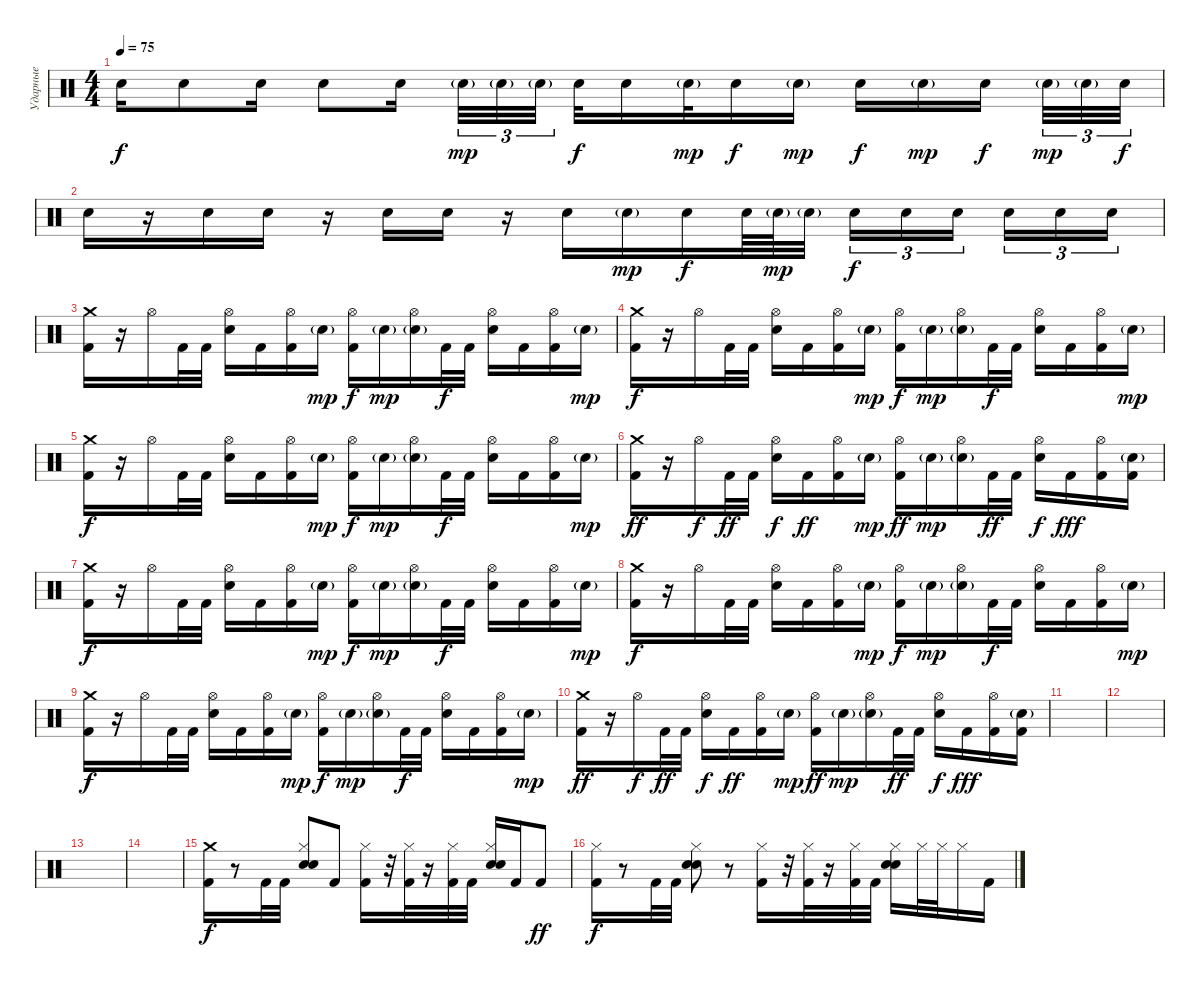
\track ("Ударные" "Ударные") {instrument percussion}
\staff {score}
\articulation defaults
\ts (4 4)
\tempo 75
\clef neutral
\ks c "Snare (hit) 2".16{dy f} "Snare (hit) 2".8 "Snare (hit) 2".16 "Snare (hit) 2".8 "Snare (hit) 2".16{beam splitsecondary} "Snare (hit) 2"{g}.32{tu (3 2) dy mp} "Snare (hit) 2"{g}.32{tu (3 2)} "Snare (hit) 2"{g}.32{tu (3 2)} "Snare (hit) 2".32{dy f} "Snare (hit) 2".16 "Snare (hit) 2"{g}.32{dy mp} "Snare (hit) 2".16{dy f} "Snare (hit) 2"{g}.16{dy mp} "Snare (hit) 2".16{dy f} "Snare (hit) 2"{g}.16{dy mp} "Snare (hit) 2".16{dy f beam splitsecondary} "Snare (hit) 2"{g}.32{tu (3 2) dy mp} "Snare (hit) 2"{g}.32{tu (3 2)} "Snare (hit) 2".32{tu (3 2) dy f}
|
"Snare (hit) 2".16 r.16 "Snare (hit) 2".16 "Snare (hit) 2".16 r.16 "Snare (hit) 2".16 "Snare (hit) 2".16 r.16 "Snare (hit) 2".16 "Snare (hit) 2"{g}.16{dy mp} "Snare (hit) 2".16{dy f} "Snare (hit) 2".64 "Snare (hit) 2"{g}.64{dy mp} "Snare (hit) 2"{g}.32 "Snare (hit) 2".16{tu (3 2) dy f} "Snare (hit) 2".16{tu (3 2)} "Snare (hit) 2".16{tu (3 2) beam splitsecondary} "Snare (hit) 2".16{tu (3 2)} "Snare (hit) 2".16{tu (3 2)} "Snare (hit) 2".16{tu (3 2)} |
("Crash medium (hit)" "Kick (hit) 2").16 r.16 "Hi-Hat (open)".16 "Kick (hit) 2".32 "Kick (hit) 2".32 ("Hi-Hat (open)" "Electric Snare (hit)").16 "Kick (hit) 2".16 ("Hi-Hat (open)" "Kick (hit) 2").16 "Electric Snare (hit)"{g}.16{dy mp} ("Hi-Hat (open)" "Kick (hit) 2").16{dy f} "Electric Snare (hit)"{g}.16{dy mp} ("Hi-Hat (open)" "Electric Snare (hit)"{g}).16 "Kick (hit) 2".32{dy f} "Kick (hit) 2".32 ("Hi-Hat (open)" "Electric Snare (hit)").16 "Kick (hit) 2".16 ("Hi-Hat (open)" "Kick (hit) 2").16 "Electric Snare (hit)"{g}.16{dy mp} |
("Crash medium (hit)" "Kick (hit) 2").16{dy f} r.16 "Hi-Hat (open)".16 "Kick (hit) 2".32 "Kick (hit) 2".32 ("Hi-Hat (open)" "Electric Snare (hit)").16 "Kick (hit) 2".16 ("Hi-Hat (open)" "Kick (hit) 2").16 "Electric Snare (hit)"{g}.16{dy mp} ("Hi-Hat (open)" "Kick (hit) 2").16{dy f} "Electric Snare (hit)"{g}.16{dy mp} ("Hi-Hat (open)" "Electric Snare (hit)"{g}).16 "Kick (hit) 2".32{dy f} "Kick (hit) 2".32 ("Hi-Hat (open)" "Electric Snare (hit)").16 "Kick (hit) 2".16 ("Hi-Hat (open)" "Kick (hit) 2").16 "Electric Snare (hit)"{g}.16{dy mp} |
("Crash medium (hit)" "Kick (hit) 2").16{dy f} r.16 "Hi-Hat (open)".16 "Kick (hit) 2".32 "Kick (hit) 2".32 ("Hi-Hat (open)" "Electric Snare (hit)").16 "Kick (hit) 2".16 ("Hi-Hat (open)" "Kick (hit) 2").16 "Electric Snare (hit)"{g}.16{dy mp} ("Hi-Hat (open)" "Kick (hit) 2").16{dy f} "Electric Snare (hit)"{g}.16{dy mp} ("Hi-Hat (open)" "Electric Snare (hit)"{g}).16 "Kick (hit) 2".32{dy f} "Kick (hit) 2".32 ("Hi-Hat (open)" "Electric Snare (hit)").16 "Kick (hit) 2".16 ("Hi-Hat (open)" "Kick (hit) 2").16 "Electric Snare (hit)"{g}.16{dy mp} |
("Crash medium (hit)" "Kick (hit) 2").16{dy ff} r.16 "Hi-Hat (open)".16{dy f} "Kick (hit) 2".32{dy ff} "Kick (hit) 2".32 ("Hi-Hat (open)" "Electric Snare (hit)").16{dy f} "Kick (hit) 2".16{dy ff} ("Hi-Hat (open)" "Kick (hit) 2").16 "Electric Snare (hit)"{g}.16{dy mp} ("Hi-Hat (open)" "Kick (hit) 2").16{dy ff} "Electric Snare (hit)"{g}.16{dy mp} ("Hi-Hat (open)" "Electric Snare (hit)"{g}).16 "Kick (hit) 2".32{dy ff} "Kick (hit) 2".32 ("Hi-Hat (open)" "Electric Snare (hit)").16{dy f} "Kick (hit) 2".16{dy fff} ("Hi-Hat (open)" "Kick (hit) 2").16 ("Electric Snare (hit)"{g} "Kick (hit) 2").16 |
("Crash medium (hit)" "Kick (hit) 2").16{dy f} r.16 "Hi-Hat (open)".16 "Kick (hit) 2".32 "Kick (hit) 2".32 ("Hi-Hat (open)" "Electric Snare (hit)").16 "Kick (hit) 2".16 ("Hi-Hat (open)" "Kick (hit) 2").16 "Electric Snare (hit)"{g}.16{dy mp} ("Hi-Hat (open)" "Kick (hit) 2").16{dy f} "Electric Snare (hit)"{g}.16{dy mp} ("Hi-Hat (open)" "Electric Snare (hit)"{g}).16 "Kick (hit) 2".32{dy f} "Kick (hit) 2".32 ("Hi-Hat (open)" "Electric Snare (hit)").16 "Kick (hit) 2".16 ("Hi-Hat (open)" "Kick (hit) 2").16 "Electric Snare (hit)"{g}.16{dy mp} |
("Crash medium (hit)" "Kick (hit) 2").16{dy f} r.16 "Hi-Hat (open)".16 "Kick (hit) 2".32 "Kick (hit) 2".32 ("Hi-Hat (open)" "Electric Snare (hit)").16 "Kick (hit) 2".16 ("Hi-Hat (open)" "Kick (hit) 2").16 "Electric Snare (hit)"{g}.16{dy mp} ("Hi-Hat (open)" "Kick (hit) 2").16{dy f} "Electric Snare (hit)"{g}.16{dy mp} ("Hi-Hat (open)" "Electric Snare (hit)"{g}).16 "Kick (hit) 2".32{dy f} "Kick (hit) 2".32 ("Hi-Hat (open)" "Electric Snare (hit)").16 "Kick (hit) 2".16 ("Hi-Hat (open)" "Kick (hit) 2").16 "Electric Snare (hit)"{g}.16{dy mp} |
("Crash medium (hit)" "Kick (hit) 2").16{dy f} r.16 "Hi-Hat (open)".16 "Kick (hit) 2".32 "Kick (hit) 2".32 ("Hi-Hat (open)" "Electric Snare (hit)").16 "Kick (hit) 2".16 ("Hi-Hat (open)" "Kick (hit) 2").16 "Electric Snare (hit)"{g}.16{dy mp} ("Hi-Hat (open)" "Kick (hit) 2").16{dy f} "Electric Snare (hit)"{g}.16{dy mp} ("Hi-Hat (open)" "Electric Snare (hit)"{g}).16 "Kick (hit) 2".32{dy f} "Kick (hit) 2".32 ("Hi-Hat (open)" "Electric Snare (hit)").16 "Kick (hit) 2".16 ("Hi-Hat (open)" "Kick (hit) 2").16 "Electric Snare (hit)"{g}.16{dy mp} |
("Crash medium (hit)" "Kick (hit) 2").16{dy ff} r.16 "Hi-Hat (open)".16{dy f} "Kick (hit) 2".32{dy ff} "Kick (hit) 2".32 ("Hi-Hat (open)" "Electric Snare (hit)").16{dy f} "Kick (hit) 2".16{dy ff} ("Hi-Hat (open)" "Kick (hit) 2").16 "Electric Snare (hit)"{g}.16{dy mp} ("Hi-Hat (open)" "Kick (hit) 2").16{dy ff} "Electric Snare (hit)"{g}.16{dy mp} ("Hi-Hat (open)" "Electric Snare (hit)"{g}).16 "Kick (hit) 2".32{dy ff} "Kick (hit) 2".32 ("Hi-Hat (open)" "Electric Snare (hit)").16{dy f} "Kick (hit) 2".16{dy fff} ("Hi-Hat (open)" "Kick (hit) 2").16 ("Electric Snare (hit)"{g} "Kick (hit) 2").16 |
|
|
|
|
("Crash medium (hit)" "Kick (hit) 2").16{dy f} r.8 "Kick (hit) 2".32 "Kick (hit) 2".32 ("Hi-Hat (closed)" "Snare (hit) 2" "Hand Clap (hit)").8 "Kick (hit) 2".8 ("Hi-Hat (closed)" "Kick (hit) 2").16 r.32 ("Hi-Hat (closed)" "Kick (hit) 2").32 r.16 ("Hi-Hat (closed)" "Kick (hit) 2").32 "Kick (hit) 2".32 ("Hi-Hat (closed)" "Snare (hit) 2" "Hand Clap (hit)").16 "Kick (hit) 2".16 "Kick (hit) 2".8{dy ff} |
("Hi-Hat (closed)" "Kick (hit) 2").16{dy f} r.8 "Kick (hit) 2".32 "Kick (hit) 2".32 ("Hi-Hat (closed)" "Snare (hit) 2" "Hand Clap (hit)").8 r.8 ("Hi-Hat (closed)" "Kick (hit) 2").16 r.32 ("Hi-Hat (closed)" "Kick (hit) 2").32 r.16 ("Hi-Hat (closed)" "Kick (hit) 2").32 "Kick (hit) 2".32 ("Hi-Hat (closed)" "Snare (hit) 2" "Hand Clap (hit)").16 "Hi-Hat (closed)".32 "Hi-Hat (closed)".32 "Hi-Hat (closed)".16 "Kick (hit) 2".16
